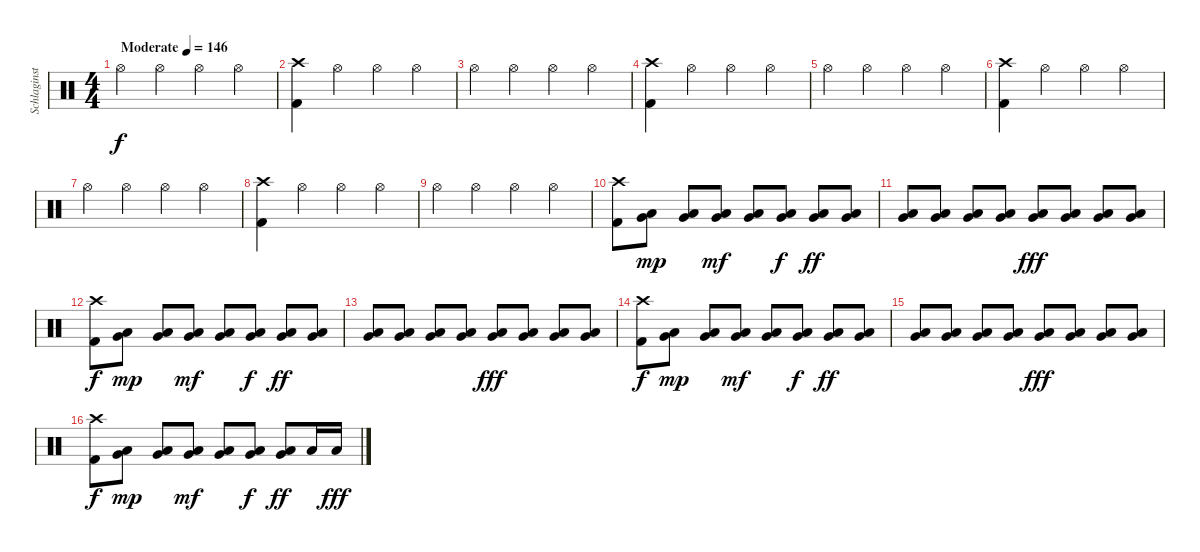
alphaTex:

\track ("Schlaginstrumente - Auswahl" "Schlaginst") {instrument percussion}
\staff {score}
\articulation defaults
\ts (4 4)
\tempo (146 "Moderate")
\clef neutral
\ks c "Hi-Hat (open)".4{dy f} "Hi-Hat (open)".4 "Hi-Hat (open)".4 "Hi-Hat (open)".4
|
("Crash high (hit)" "Kick (hit) 2").4 "Hi-Hat (open)".4 "Hi-Hat (open)".4 "Hi-Hat (open)".4 |
"Hi-Hat (open)".4 "Hi-Hat (open)".4 "Hi-Hat (open)".4 "Hi-Hat (open)".4 |
("Crash high (hit)" "Kick (hit) 2").4 "Hi-Hat (open)".4 "Hi-Hat (open)".4 "Hi-Hat (open)".4 |
"Hi-Hat (open)".4 "Hi-Hat (open)".4 "Hi-Hat (open)".4 "Hi-Hat (open)".4 |
("Crash high (hit)" "Kick (hit) 2").4 "Hi-Hat (open)".4 "Hi-Hat (open)".4 "Hi-Hat (open)".4 |
"Hi-Hat (open)".4 "Hi-Hat (open)".4 "Hi-Hat (open)".4 "Hi-Hat (open)".4 |
("Crash high (hit)" "Kick (hit) 2").4 "Hi-Hat (open)".4 "Hi-Hat (open)".4 "Hi-Hat (open)".4 |
"Hi-Hat (open)".4 "Hi-Hat (open)".4 "Hi-Hat (open)".4 "Hi-Hat (open)".4 |
("Crash high (hit)" "Kick (hit) 2").8 ("Low Tom (hit)" "Very Low Tom (hit)").8{dy mp} ("Low Tom (hit)" "Very Low Tom (hit)").8 ("Low Tom (hit)" "Very Low Tom (hit)").8{dy mf} ("Low Tom (hit)" "Very Low Tom (hit)").8 ("Low Tom (hit)" "Very Low Tom (hit)").8{dy f} ("Low Tom (hit)" "Very Low Tom (hit)").8{dy ff} ("Low Tom (hit)" "Very Low Tom (hit)").8 |
("Low Tom (hit)" "Very Low Tom (hit)").8 ("Low Tom (hit)" "Very Low Tom (hit)").8 ("Low Tom (hit)" "Very Low Tom (hit)").8 ("Low Tom (hit)" "Very Low Tom (hit)").8 ("Low Tom (hit)" "Very Low Tom (hit)").8{dy fff} ("Low Tom (hit)" "Very Low Tom (hit)").8 ("Low Tom (hit)" "Very Low Tom (hit)").8 ("Low Tom (hit)" "Very Low Tom (hit)").8 |
("Crash high (hit)" "Kick (hit) 2").8{dy f} ("Low Tom (hit)" "Very Low Tom (hit)").8{dy mp} ("Low Tom (hit)" "Very Low Tom (hit)").8 ("Low Tom (hit)" "Very Low Tom (hit)").8{dy mf} ("Low Tom (hit)" "Very Low Tom (hit)").8 ("Low Tom (hit)" "Very Low Tom (hit)").8{dy f} ("Low Tom (hit)" "Very Low Tom (hit)").8{dy ff} ("Low Tom (hit)" "Very Low Tom (hit)").8 |
("Low Tom (hit)" "Very Low Tom (hit)").8 ("Low Tom (hit)" "Very Low Tom (hit)").8 ("Low Tom (hit)" "Very Low Tom (hit)").8 ("Low Tom (hit)" "Very Low Tom (hit)").8 ("Low Tom (hit)" "Very Low Tom (hit)").8{dy fff} ("Low Tom (hit)" "Very Low Tom (hit)").8 ("Low Tom (hit)" "Very Low Tom (hit)").8 ("Low Tom (hit)" "Very Low Tom (hit)").8 |
("Crash high (hit)" "Kick (hit) 2").8{dy f} ("Low Tom (hit)" "Very Low Tom (hit)").8{dy mp} ("Low Tom (hit)" "Very Low Tom (hit)").8 ("Low Tom (hit)" "Very Low Tom (hit)").8{dy mf} ("Low Tom (hit)" "Very Low Tom (hit)").8 ("Low Tom (hit)" "Very Low Tom (hit)").8{dy f} ("Low Tom (hit)" "Very Low Tom (hit)").8{dy ff} ("Low Tom (hit)" "Very Low Tom (hit)").8 |
("Low Tom (hit)" "Very Low Tom (hit)").8 ("Low Tom (hit)" "Very Low Tom (hit)").8 ("Low Tom (hit)" "Very Low Tom (hit)").8 ("Low Tom (hit)" "Very Low Tom (hit)").8 ("Low Tom (hit)" "Very Low Tom (hit)").8{dy fff} ("Low Tom (hit)" "Very Low Tom (hit)").8 ("Low Tom (hit)" "Very Low Tom (hit)").8 ("Low Tom (hit)" "Very Low Tom (hit)").8 |
("Crash high (hit)" "Kick (hit) 2").8{dy f} ("Low Tom (hit)" "Very Low Tom (hit)").8{dy mp} ("Low Tom (hit)" "Very Low Tom (hit)").8 ("Low Tom (hit)" "Very Low Tom (hit)").8{dy mf} ("Low Tom (hit)" "Very Low Tom (hit)").8 ("Low Tom (hit)" "Very Low Tom (hit)").8{dy f} ("Low Tom (hit)" "Very Low Tom (hit)").8{dy ff} "Low Tom (hit)".16 "Low Tom (hit)".16{dy fff}
